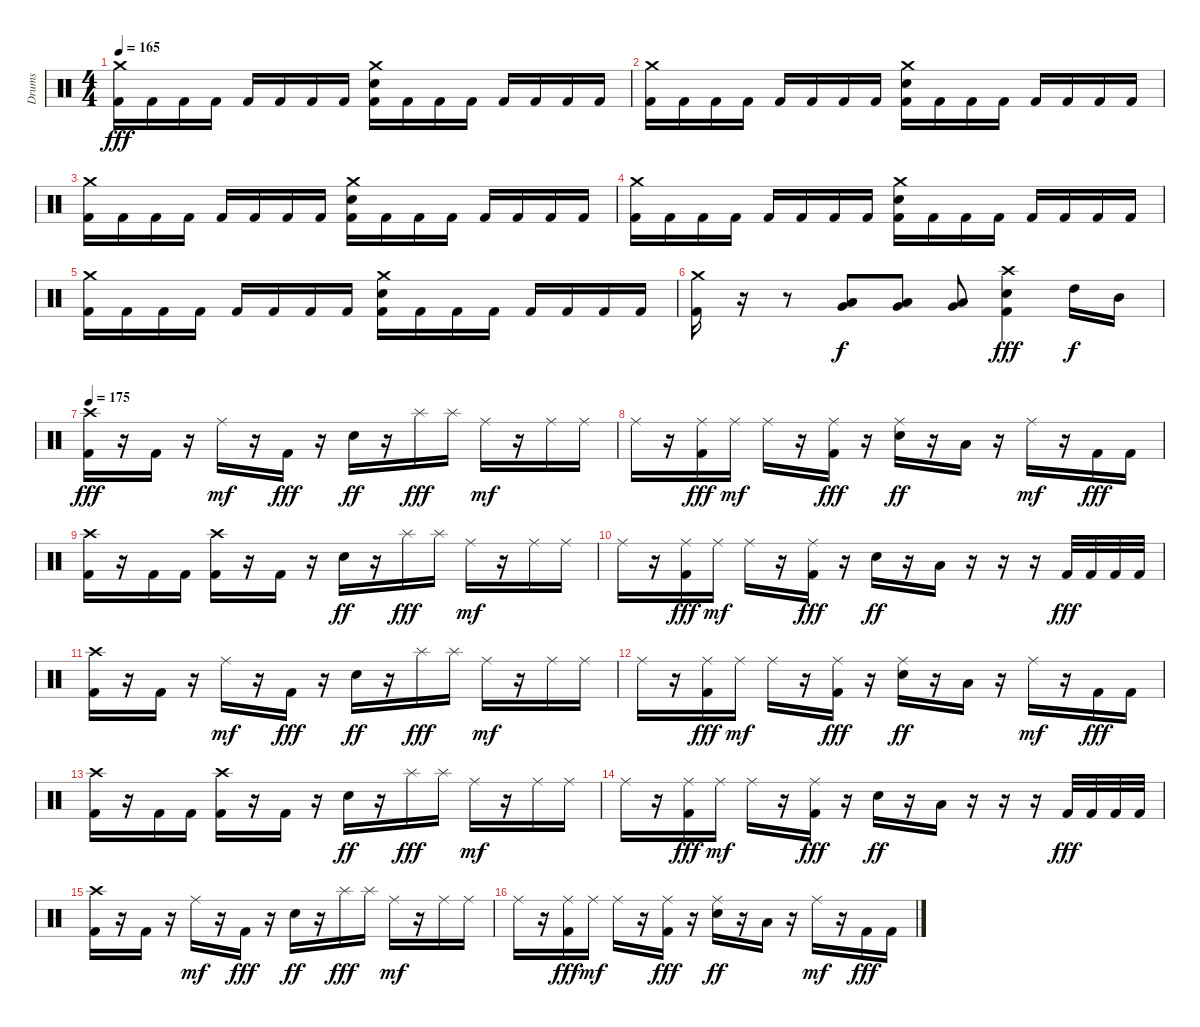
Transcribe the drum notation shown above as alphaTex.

\track ("Drums" "Drums") {instrument percussion}
\staff {score}
\articulation defaults
\ts (4 4)
\tempo 165
\clef neutral
\ks c
("Crash medium (hit)" "Kick (hit) 2").16{dy fff} "Kick (hit) 2".16 "Kick (hit) 2".16 "Kick (hit) 2".16 "Kick (hit) 2".16 "Kick (hit) 2".16 "Kick (hit) 2".16 "Kick (hit) 2".16 ("Crash medium (hit)" "Snare (hit) 2" "Kick (hit) 2").16 "Kick (hit) 2".16 "Kick (hit) 2".16 "Kick (hit) 2".16 "Kick (hit) 2".16 "Kick (hit) 2".16 "Kick (hit) 2".16 "Kick (hit) 2".16 |
("Crash medium (hit)" "Kick (hit) 2").16 "Kick (hit) 2".16 "Kick (hit) 2".16 "Kick (hit) 2".16 "Kick (hit) 2".16 "Kick (hit) 2".16 "Kick (hit) 2".16 "Kick (hit) 2".16 ("Crash medium (hit)" "Snare (hit) 2" "Kick (hit) 2").16 "Kick (hit) 2".16 "Kick (hit) 2".16 "Kick (hit) 2".16 "Kick (hit) 2".16 "Kick (hit) 2".16 "Kick (hit) 2".16 "Kick (hit) 2".16 |
("Crash medium (hit)" "Kick (hit) 2").16 "Kick (hit) 2".16 "Kick (hit) 2".16 "Kick (hit) 2".16 "Kick (hit) 2".16 "Kick (hit) 2".16 "Kick (hit) 2".16 "Kick (hit) 2".16 ("Crash medium (hit)" "Snare (hit) 2" "Kick (hit) 2").16 "Kick (hit) 2".16 "Kick (hit) 2".16 "Kick (hit) 2".16 "Kick (hit) 2".16 "Kick (hit) 2".16 "Kick (hit) 2".16 "Kick (hit) 2".16 |
("Crash medium (hit)" "Kick (hit) 2").16 "Kick (hit) 2".16 "Kick (hit) 2".16 "Kick (hit) 2".16 "Kick (hit) 2".16 "Kick (hit) 2".16 "Kick (hit) 2".16 "Kick (hit) 2".16 ("Crash medium (hit)" "Snare (hit) 2" "Kick (hit) 2").16 "Kick (hit) 2".16 "Kick (hit) 2".16 "Kick (hit) 2".16 "Kick (hit) 2".16 "Kick (hit) 2".16 "Kick (hit) 2".16 "Kick (hit) 2".16 |
("Crash medium (hit)" "Kick (hit) 2").16 "Kick (hit) 2".16 "Kick (hit) 2".16 "Kick (hit) 2".16 "Kick (hit) 2".16 "Kick (hit) 2".16 "Kick (hit) 2".16 "Kick (hit) 2".16 ("Crash medium (hit)" "Snare (hit) 2" "Kick (hit) 2").16 "Kick (hit) 2".16 "Kick (hit) 2".16 "Kick (hit) 2".16 "Kick (hit) 2".16 "Kick (hit) 2".16 "Kick (hit) 2".16 "Kick (hit) 2".16 |
("Crash medium (hit)" "Kick (hit) 2").16 r.16 r.8 ("Very Low Tom (hit)" "Low Floor Tom (hit)").8{dy f} ("Very Low Tom (hit)" "Low Floor Tom (hit)").8 ("Very Low Tom (hit)" "Low Floor Tom (hit)").8 ("Crash high (hit)" "Snare (hit) 2" "Kick (hit) 2").4{dy fff} "High Tom (hit)".16{dy f} "Mid Tom (hit)".16 |
\tempo 175
("Crash high (hit)" "Kick (hit) 2").16{dy fff} r.16 "Kick (hit) 2".16 r.16 "Ride (middle)".16{dy mf} r.16 "Kick (hit) 2".16{dy fff} r.16 "Snare (hit) 2".16{dy ff} r.16 "Splash (hit)".16{dy fff} "Splash (hit)".16 "Ride (middle)".16{dy mf} r.16 "Ride (middle)".16 "Ride (middle)".16 |
"Ride (middle)".16 r.16 ("Ride (middle)" "Kick (hit) 2").16{dy fff} "Ride (middle)".16{dy mf} "Ride (middle)".16 r.16 ("Ride (middle)" "Kick (hit) 2").16{dy fff} r.16 ("Ride (middle)" "Snare (hit) 2").16{dy ff} r.16 "Low Tom (hit)".16 r.16 "Ride (middle)".16{dy mf} r.16 "Kick (hit) 2".16{dy fff} "Kick (hit) 2".16 |
("Crash high (hit)" "Kick (hit) 2").16 r.16 "Kick (hit) 2".16 "Kick (hit) 2".16 ("Crash high (hit)" "Kick (hit) 2").16 r.16 "Kick (hit) 2".16 r.16 "Snare (hit) 2".16{dy ff} r.16 "Splash (hit)".16{dy fff} "Splash (hit)".16 "Ride (middle)".16{dy mf} r.16 "Ride (middle)".16 "Ride (middle)".16 |
"Ride (middle)".16 r.16 ("Ride (middle)" "Kick (hit) 2").16{dy fff} "Ride (middle)".16{dy mf} "Ride (middle)".16 r.16 ("Ride (middle)" "Kick (hit) 2").16{dy fff} r.16 "Snare (hit) 2".16{dy ff} r.16 "Low Tom (hit)".16 r.16 r.16 r.16 "Kick (hit) 2".32{dy fff} "Kick (hit) 2".32 "Kick (hit) 2".32 "Kick (hit) 2".32 |
("Crash high (hit)" "Kick (hit) 2").16 r.16 "Kick (hit) 2".16 r.16 "Ride (middle)".16{dy mf} r.16 "Kick (hit) 2".16{dy fff} r.16 "Snare (hit) 2".16{dy ff} r.16 "Splash (hit)".16{dy fff} "Splash (hit)".16 "Ride (middle)".16{dy mf} r.16 "Ride (middle)".16 "Ride (middle)".16 |
"Ride (middle)".16 r.16 ("Ride (middle)" "Kick (hit) 2").16{dy fff} "Ride (middle)".16{dy mf} "Ride (middle)".16 r.16 ("Ride (middle)" "Kick (hit) 2").16{dy fff} r.16 ("Ride (middle)" "Snare (hit) 2").16{dy ff} r.16 "Low Tom (hit)".16 r.16 "Ride (middle)".16{dy mf} r.16 "Kick (hit) 2".16{dy fff} "Kick (hit) 2".16 |
("Crash high (hit)" "Kick (hit) 2").16 r.16 "Kick (hit) 2".16 "Kick (hit) 2".16 ("Crash high (hit)" "Kick (hit) 2").16 r.16 "Kick (hit) 2".16 r.16 "Snare (hit) 2".16{dy ff} r.16 "Splash (hit)".16{dy fff} "Splash (hit)".16 "Ride (middle)".16{dy mf} r.16 "Ride (middle)".16 "Ride (middle)".16 |
"Ride (middle)".16 r.16 ("Ride (middle)" "Kick (hit) 2").16{dy fff} "Ride (middle)".16{dy mf} "Ride (middle)".16 r.16 ("Ride (middle)" "Kick (hit) 2").16{dy fff} r.16 "Snare (hit) 2".16{dy ff} r.16 "Low Tom (hit)".16 r.16 r.16 r.16 "Kick (hit) 2".32{dy fff} "Kick (hit) 2".32 "Kick (hit) 2".32 "Kick (hit) 2".32 |
("Crash high (hit)" "Kick (hit) 2").16 r.16 "Kick (hit) 2".16 r.16 "Ride (middle)".16{dy mf} r.16 "Kick (hit) 2".16{dy fff} r.16 "Snare (hit) 2".16{dy ff} r.16 "Splash (hit)".16{dy fff} "Splash (hit)".16 "Ride (middle)".16{dy mf} r.16 "Ride (middle)".16 "Ride (middle)".16 |
"Ride (middle)".16 r.16 ("Ride (middle)" "Kick (hit) 2").16{dy fff} "Ride (middle)".16{dy mf} "Ride (middle)".16 r.16 ("Ride (middle)" "Kick (hit) 2").16{dy fff} r.16 ("Ride (middle)" "Snare (hit) 2").16{dy ff} r.16 "Low Tom (hit)".16 r.16 "Ride (middle)".16{dy mf} r.16 "Kick (hit) 2".16{dy fff} "Kick (hit) 2".16
